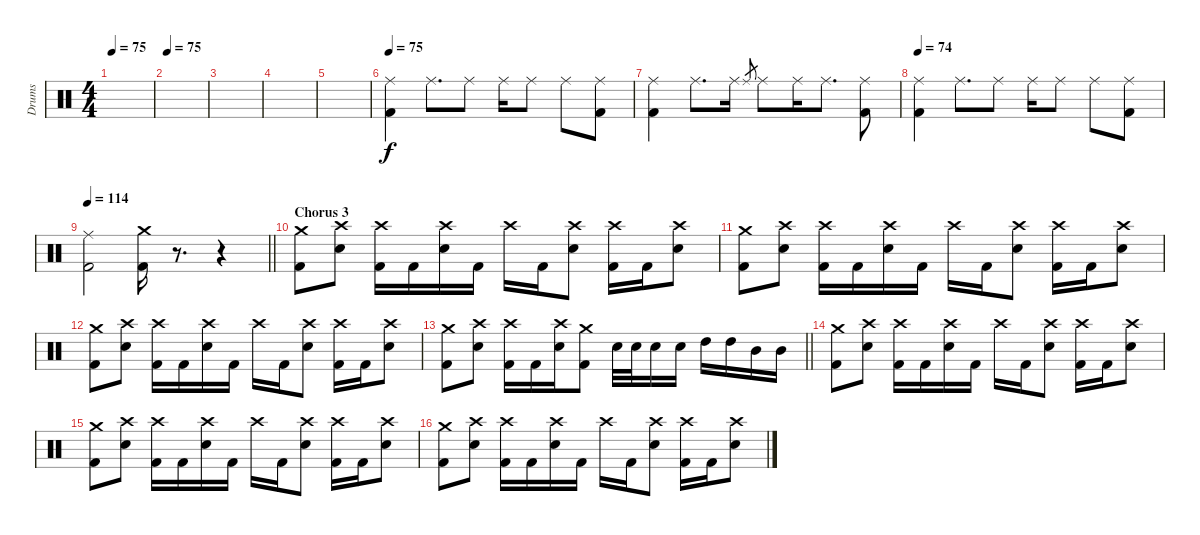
\track ("Drums" "Drums") {instrument percussion}
\staff {score}
\articulation defaults
\ts (4 4)
\tempo 75
\clef neutral
\ks c
|
\tempo 75
|
|
|
|
\tempo 75
("Ride (middle)" "Kick (hit) 2").4 "Ride (middle)".8{d} "Ride (middle)".8 "Ride (middle)".16 "Ride (middle)".8 "Ride (middle)".8 ("Ride (middle)" "Kick (hit) 2").8 |
("Ride (middle)" "Kick (hit) 2").4 "Ride (middle)".8{d} "Ride (middle)".16 "Ride (middle)".8{gr} "Ride (middle)".8 "Ride (middle)".16 "Ride (middle)".8{d} ("Ride (middle)" "Kick (hit) 2").8 |
\tempo 74
("Ride (middle)" "Kick (hit) 2").4 "Ride (middle)".8{d} "Ride (middle)".8 "Ride (middle)".16 "Ride (middle)".8 "Ride (middle)".8 ("Ride (middle)" "Kick (hit) 2").8 |
\tempo 114
\barLineRight lightlight
("Ride (middle)" "Kick (hit) 2").2 ("Crash medium (hit)" "Kick (hit) 2").16 r.8{d} r.4 |
\section ("" "Chorus 3")
("Crash medium (hit)" "Kick (hit) 2").8 ("Crash high (hit)" "Electric Snare (hit)").8 ("Crash high (hit)" "Kick (hit) 2").16 "Kick (hit) 2".16 ("Crash high (hit)" "Electric Snare (hit)").16 "Kick (hit) 2".16 "Crash high (hit)".16 "Kick (hit) 2".16 ("Crash high (hit)" "Electric Snare (hit)").8 ("Crash high (hit)" "Kick (hit) 2").16 "Kick (hit) 2".16 ("Crash high (hit)" "Electric Snare (hit)").8 |
("Crash medium (hit)" "Kick (hit) 2").8 ("Crash high (hit)" "Electric Snare (hit)").8 ("Crash high (hit)" "Kick (hit) 2").16 "Kick (hit) 2".16 ("Crash high (hit)" "Electric Snare (hit)").16 "Kick (hit) 2".16 "Crash high (hit)".16 "Kick (hit) 2".16 ("Crash high (hit)" "Electric Snare (hit)").8 ("Crash high (hit)" "Kick (hit) 2").16 "Kick (hit) 2".16 ("Crash high (hit)" "Electric Snare (hit)").8 |
("Crash medium (hit)" "Kick (hit) 2").8 ("Crash high (hit)" "Electric Snare (hit)").8 ("Crash high (hit)" "Kick (hit) 2").16 "Kick (hit) 2".16 ("Crash high (hit)" "Electric Snare (hit)").16 "Kick (hit) 2".16 "Crash high (hit)".16 "Kick (hit) 2".16 ("Crash high (hit)" "Electric Snare (hit)").8 ("Crash high (hit)" "Kick (hit) 2").16 "Kick (hit) 2".16 ("Crash high (hit)" "Electric Snare (hit)").8 |
\barLineRight lightlight
("Crash medium (hit)" "Kick (hit) 2").8 ("Crash high (hit)" "Electric Snare (hit)").8 ("Crash high (hit)" "Kick (hit) 2").16 "Kick (hit) 2".16 ("Crash high (hit)" "Electric Snare (hit)").16 ("Crash medium (hit)" "Kick (hit) 2").8 "Electric Snare (hit)".32 "Electric Snare (hit)".32 "Electric Snare (hit)".16 "Electric Snare (hit)".16 "High Tom (hit)".16 "High Tom (hit)".16 "Mid Tom (hit)".16 "Mid Tom (hit)".16 |
("Crash medium (hit)" "Kick (hit) 2").8 ("Crash high (hit)" "Electric Snare (hit)").8 ("Crash high (hit)" "Kick (hit) 2").16 "Kick (hit) 2".16 ("Crash high (hit)" "Electric Snare (hit)").16 "Kick (hit) 2".16 "Crash high (hit)".16 "Kick (hit) 2".16 ("Crash high (hit)" "Electric Snare (hit)").8 ("Crash high (hit)" "Kick (hit) 2").16 "Kick (hit) 2".16 ("Crash high (hit)" "Electric Snare (hit)").8 |
("Crash medium (hit)" "Kick (hit) 2").8 ("Crash high (hit)" "Electric Snare (hit)").8 ("Crash high (hit)" "Kick (hit) 2").16 "Kick (hit) 2".16 ("Crash high (hit)" "Electric Snare (hit)").16 "Kick (hit) 2".16 "Crash high (hit)".16 "Kick (hit) 2".16 ("Crash high (hit)" "Electric Snare (hit)").8 ("Crash high (hit)" "Kick (hit) 2").16 "Kick (hit) 2".16 ("Crash high (hit)" "Electric Snare (hit)").8 |
("Crash medium (hit)" "Kick (hit) 2").8 ("Crash high (hit)" "Electric Snare (hit)").8 ("Crash high (hit)" "Kick (hit) 2").16 "Kick (hit) 2".16 ("Crash high (hit)" "Electric Snare (hit)").16 "Kick (hit) 2".16 "Crash high (hit)".16 "Kick (hit) 2".16 ("Crash high (hit)" "Electric Snare (hit)").8 ("Crash high (hit)" "Kick (hit) 2").16 "Kick (hit) 2".16 ("Crash high (hit)" "Electric Snare (hit)").8
